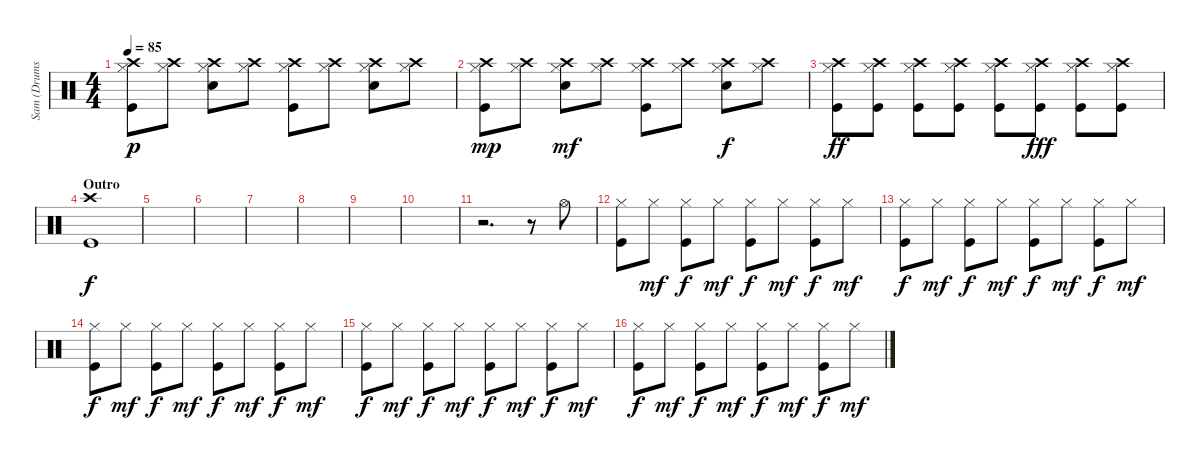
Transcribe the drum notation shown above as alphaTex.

\track ("Sam (Drums)" "Sam (Drums") {instrument percussion}
\staff {score}
\articulation defaults
\ts (4 4)
\tempo 85
\clef neutral
\ks c
("Crash high (hit)" "Hi-Hat (closed)" "Kick (hit)").8{dy p} ("Crash high (hit)" "Hi-Hat (closed)").8 ("Crash high (hit)" "Hi-Hat (closed)" "Snare (hit) 2").8 ("Crash high (hit)" "Hi-Hat (closed)").8 ("Crash high (hit)" "Hi-Hat (closed)" "Kick (hit)").8 ("Crash high (hit)" "Hi-Hat (closed)").8 ("Crash high (hit)" "Hi-Hat (closed)" "Snare (hit) 2").8 ("Crash high (hit)" "Hi-Hat (closed)").8 |
("Crash high (hit)" "Hi-Hat (closed)" "Kick (hit)").8{dy mp} ("Crash high (hit)" "Hi-Hat (closed)").8 ("Crash high (hit)" "Hi-Hat (closed)" "Snare (hit) 2").8{dy mf} ("Crash high (hit)" "Hi-Hat (closed)").8 ("Crash high (hit)" "Hi-Hat (closed)" "Kick (hit)").8 ("Crash high (hit)" "Hi-Hat (closed)").8 ("Crash high (hit)" "Hi-Hat (closed)" "Snare (hit) 2").8{dy f} ("Crash high (hit)" "Hi-Hat (closed)").8 |
("Crash high (hit)" "Hi-Hat (closed)" "Kick (hit)").8{dy ff} ("Crash high (hit)" "Hi-Hat (closed)" "Kick (hit)").8 ("Crash high (hit)" "Hi-Hat (closed)" "Kick (hit)").8 ("Crash high (hit)" "Hi-Hat (closed)" "Kick (hit)").8 ("Crash high (hit)" "Hi-Hat (closed)" "Kick (hit)").8 ("Crash high (hit)" "Hi-Hat (closed)" "Kick (hit)").8{dy fff} ("Crash high (hit)" "Hi-Hat (closed)" "Kick (hit)").8 ("Crash high (hit)" "Hi-Hat (closed)" "Kick (hit)").8 |
\section ("" "Outro")
("Crash high (hit)" "Kick (hit)").1{dy f} |
|
|
|
|
|
|
r.2{d} r.8 "Hi-Hat (open)".8 |
("Hi-Hat (closed)" "Kick (hit)").8 "Hi-Hat (closed)".8{dy mf} ("Hi-Hat (closed)" "Kick (hit)").8{dy f} "Hi-Hat (closed)".8{dy mf} ("Hi-Hat (closed)" "Kick (hit)").8{dy f} "Hi-Hat (closed)".8{dy mf} ("Hi-Hat (closed)" "Kick (hit)").8{dy f} "Hi-Hat (closed)".8{dy mf} |
("Hi-Hat (closed)" "Kick (hit)").8{dy f} "Hi-Hat (closed)".8{dy mf} ("Hi-Hat (closed)" "Kick (hit)").8{dy f} "Hi-Hat (closed)".8{dy mf} ("Hi-Hat (closed)" "Kick (hit)").8{dy f} "Hi-Hat (closed)".8{dy mf} ("Hi-Hat (closed)" "Kick (hit)").8{dy f} "Hi-Hat (closed)".8{dy mf} |
("Hi-Hat (closed)" "Kick (hit)").8{dy f} "Hi-Hat (closed)".8{dy mf} ("Hi-Hat (closed)" "Kick (hit)").8{dy f} "Hi-Hat (closed)".8{dy mf} ("Hi-Hat (closed)" "Kick (hit)").8{dy f} "Hi-Hat (closed)".8{dy mf} ("Hi-Hat (closed)" "Kick (hit)").8{dy f} "Hi-Hat (closed)".8{dy mf} |
("Hi-Hat (closed)" "Kick (hit)").8{dy f} "Hi-Hat (closed)".8{dy mf} ("Hi-Hat (closed)" "Kick (hit)").8{dy f} "Hi-Hat (closed)".8{dy mf} ("Hi-Hat (closed)" "Kick (hit)").8{dy f} "Hi-Hat (closed)".8{dy mf} ("Hi-Hat (closed)" "Kick (hit)").8{dy f} "Hi-Hat (closed)".8{dy mf} |
("Hi-Hat (closed)" "Kick (hit)").8{dy f} "Hi-Hat (closed)".8{dy mf} ("Hi-Hat (closed)" "Kick (hit)").8{dy f} "Hi-Hat (closed)".8{dy mf} ("Hi-Hat (closed)" "Kick (hit)").8{dy f} "Hi-Hat (closed)".8{dy mf} ("Hi-Hat (closed)" "Kick (hit)").8{dy f} "Hi-Hat (closed)".8{dy mf}
